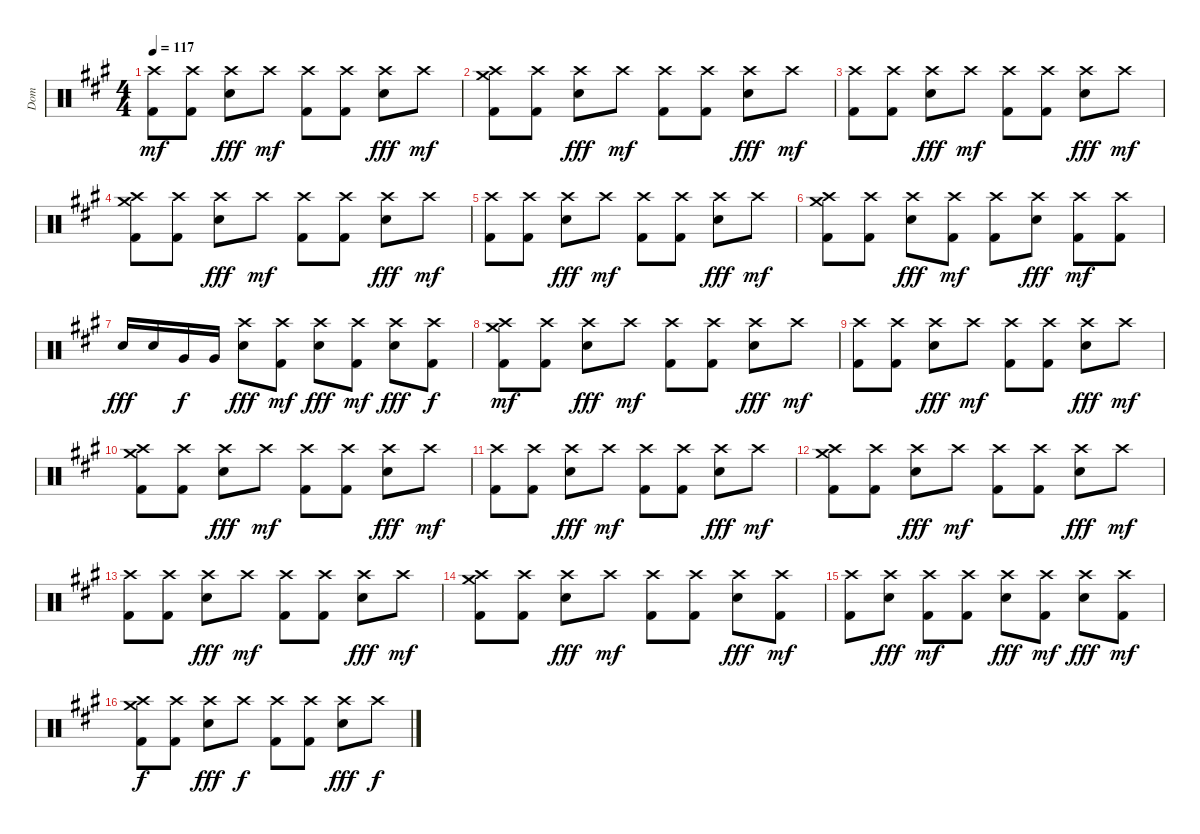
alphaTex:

\track ("Dom" "Dom") {instrument percussion}
\staff {score}
\articulation defaults
\ts (4 4)
\tempo 117
\clef neutral
\ks a
("Crash high (hit)" "Kick (hit) 2").8{dy mf} ("Crash high (hit)" "Kick (hit) 2").8 ("Crash high (hit)" "Snare (hit) 2").8{dy fff} "Crash high (hit)".8{dy mf} ("Crash high (hit)" "Kick (hit) 2").8 ("Crash high (hit)" "Kick (hit) 2").8 ("Crash high (hit)" "Snare (hit) 2").8{dy fff} "Crash high (hit)".8{dy mf} |
("Crash medium (hit)" "Crash high (hit)" "Kick (hit) 2").8 ("Crash high (hit)" "Kick (hit) 2").8 ("Crash high (hit)" "Snare (hit) 2").8{dy fff} "Crash high (hit)".8{dy mf} ("Crash high (hit)" "Kick (hit) 2").8 ("Crash high (hit)" "Kick (hit) 2").8 ("Crash high (hit)" "Snare (hit) 2").8{dy fff} "Crash high (hit)".8{dy mf} |
("Crash high (hit)" "Kick (hit) 2").8 ("Crash high (hit)" "Kick (hit) 2").8 ("Crash high (hit)" "Snare (hit) 2").8{dy fff} "Crash high (hit)".8{dy mf} ("Crash high (hit)" "Kick (hit) 2").8 ("Crash high (hit)" "Kick (hit) 2").8 ("Crash high (hit)" "Snare (hit) 2").8{dy fff} "Crash high (hit)".8{dy mf} |
("Crash medium (hit)" "Crash high (hit)" "Kick (hit) 2").8 ("Crash high (hit)" "Kick (hit) 2").8 ("Crash high (hit)" "Snare (hit) 2").8{dy fff} "Crash high (hit)".8{dy mf} ("Crash high (hit)" "Kick (hit) 2").8 ("Crash high (hit)" "Kick (hit) 2").8 ("Crash high (hit)" "Snare (hit) 2").8{dy fff} "Crash high (hit)".8{dy mf} |
("Crash high (hit)" "Kick (hit) 2").8 ("Crash high (hit)" "Kick (hit) 2").8 ("Crash high (hit)" "Snare (hit) 2").8{dy fff} "Crash high (hit)".8{dy mf} ("Crash high (hit)" "Kick (hit) 2").8 ("Crash high (hit)" "Kick (hit) 2").8 ("Crash high (hit)" "Snare (hit) 2").8{dy fff} "Crash high (hit)".8{dy mf} |
("Crash medium (hit)" "Crash high (hit)" "Kick (hit) 2").8 ("Crash high (hit)" "Kick (hit) 2").8 ("Crash high (hit)" "Snare (hit) 2").8{dy fff} ("Crash high (hit)" "Kick (hit) 2").8{dy mf} ("Crash high (hit)" "Kick (hit) 2").8 ("Crash high (hit)" "Snare (hit) 2").8{dy fff} ("Crash high (hit)" "Kick (hit) 2").8{dy mf} ("Crash high (hit)" "Kick (hit) 2").8 |
"Snare (hit) 2".16{dy fff} "Snare (hit) 2".16 "Very Low Tom (hit)".16{dy f} "Very Low Tom (hit)".16 ("Crash high (hit)" "Snare (hit) 2").8{dy fff} ("Crash high (hit)" "Kick (hit) 2").8{dy mf} ("Crash high (hit)" "Snare (hit) 2").8{dy fff} ("Crash high (hit)" "Kick (hit) 2").8{dy mf} ("Crash high (hit)" "Snare (hit) 2").8{dy fff} ("Crash high (hit)" "Kick (hit) 2").8{dy f} |
("Crash medium (hit)" "Crash high (hit)" "Kick (hit) 2").8{dy mf} ("Crash high (hit)" "Kick (hit) 2").8 ("Crash high (hit)" "Snare (hit) 2").8{dy fff} "Crash high (hit)".8{dy mf} ("Crash high (hit)" "Kick (hit) 2").8 ("Crash high (hit)" "Kick (hit) 2").8 ("Crash high (hit)" "Snare (hit) 2").8{dy fff} "Crash high (hit)".8{dy mf} |
("Crash high (hit)" "Kick (hit) 2").8 ("Crash high (hit)" "Kick (hit) 2").8 ("Crash high (hit)" "Snare (hit) 2").8{dy fff} "Crash high (hit)".8{dy mf} ("Crash high (hit)" "Kick (hit) 2").8 ("Crash high (hit)" "Kick (hit) 2").8 ("Crash high (hit)" "Snare (hit) 2").8{dy fff} "Crash high (hit)".8{dy mf} |
("Crash medium (hit)" "Crash high (hit)" "Kick (hit) 2").8 ("Crash high (hit)" "Kick (hit) 2").8 ("Crash high (hit)" "Snare (hit) 2").8{dy fff} "Crash high (hit)".8{dy mf} ("Crash high (hit)" "Kick (hit) 2").8 ("Crash high (hit)" "Kick (hit) 2").8 ("Crash high (hit)" "Snare (hit) 2").8{dy fff} "Crash high (hit)".8{dy mf} |
("Crash high (hit)" "Kick (hit) 2").8 ("Crash high (hit)" "Kick (hit) 2").8 ("Crash high (hit)" "Snare (hit) 2").8{dy fff} "Crash high (hit)".8{dy mf} ("Crash high (hit)" "Kick (hit) 2").8 ("Crash high (hit)" "Kick (hit) 2").8 ("Crash high (hit)" "Snare (hit) 2").8{dy fff} "Crash high (hit)".8{dy mf} |
("Crash medium (hit)" "Crash high (hit)" "Kick (hit) 2").8 ("Crash high (hit)" "Kick (hit) 2").8 ("Crash high (hit)" "Snare (hit) 2").8{dy fff} "Crash high (hit)".8{dy mf} ("Crash high (hit)" "Kick (hit) 2").8 ("Crash high (hit)" "Kick (hit) 2").8 ("Crash high (hit)" "Snare (hit) 2").8{dy fff} "Crash high (hit)".8{dy mf} |
("Crash high (hit)" "Kick (hit) 2").8 ("Crash high (hit)" "Kick (hit) 2").8 ("Crash high (hit)" "Snare (hit) 2").8{dy fff} "Crash high (hit)".8{dy mf} ("Crash high (hit)" "Kick (hit) 2").8 ("Crash high (hit)" "Kick (hit) 2").8 ("Crash high (hit)" "Snare (hit) 2").8{dy fff} "Crash high (hit)".8{dy mf} |
("Crash medium (hit)" "Crash high (hit)" "Kick (hit) 2").8 ("Crash high (hit)" "Kick (hit) 2").8 ("Crash high (hit)" "Snare (hit) 2").8{dy fff} "Crash high (hit)".8{dy mf} ("Crash high (hit)" "Kick (hit) 2").8 ("Crash high (hit)" "Kick (hit) 2").8 ("Crash high (hit)" "Snare (hit) 2").8{dy fff} ("Crash high (hit)" "Kick (hit) 2").8{dy mf} |
("Crash high (hit)" "Kick (hit) 2").8 ("Crash high (hit)" "Snare (hit) 2").8{dy fff} ("Crash high (hit)" "Kick (hit) 2").8{dy mf} ("Crash high (hit)" "Kick (hit) 2").8 ("Crash high (hit)" "Snare (hit) 2").8{dy fff} ("Crash high (hit)" "Kick (hit) 2").8{dy mf} ("Crash high (hit)" "Snare (hit) 2").8{dy fff} ("Crash high (hit)" "Kick (hit) 2").8{dy mf} |
("Crash medium (hit)" "Crash high (hit)" "Kick (hit) 2").8{dy f} ("Crash high (hit)" "Kick (hit) 2").8 ("Crash high (hit)" "Snare (hit) 2").8{dy fff} "Crash high (hit)".8{dy f} ("Crash high (hit)" "Kick (hit) 2").8 ("Crash high (hit)" "Kick (hit) 2").8 ("Crash high (hit)" "Snare (hit) 2").8{dy fff} "Crash high (hit)".8{dy f}
